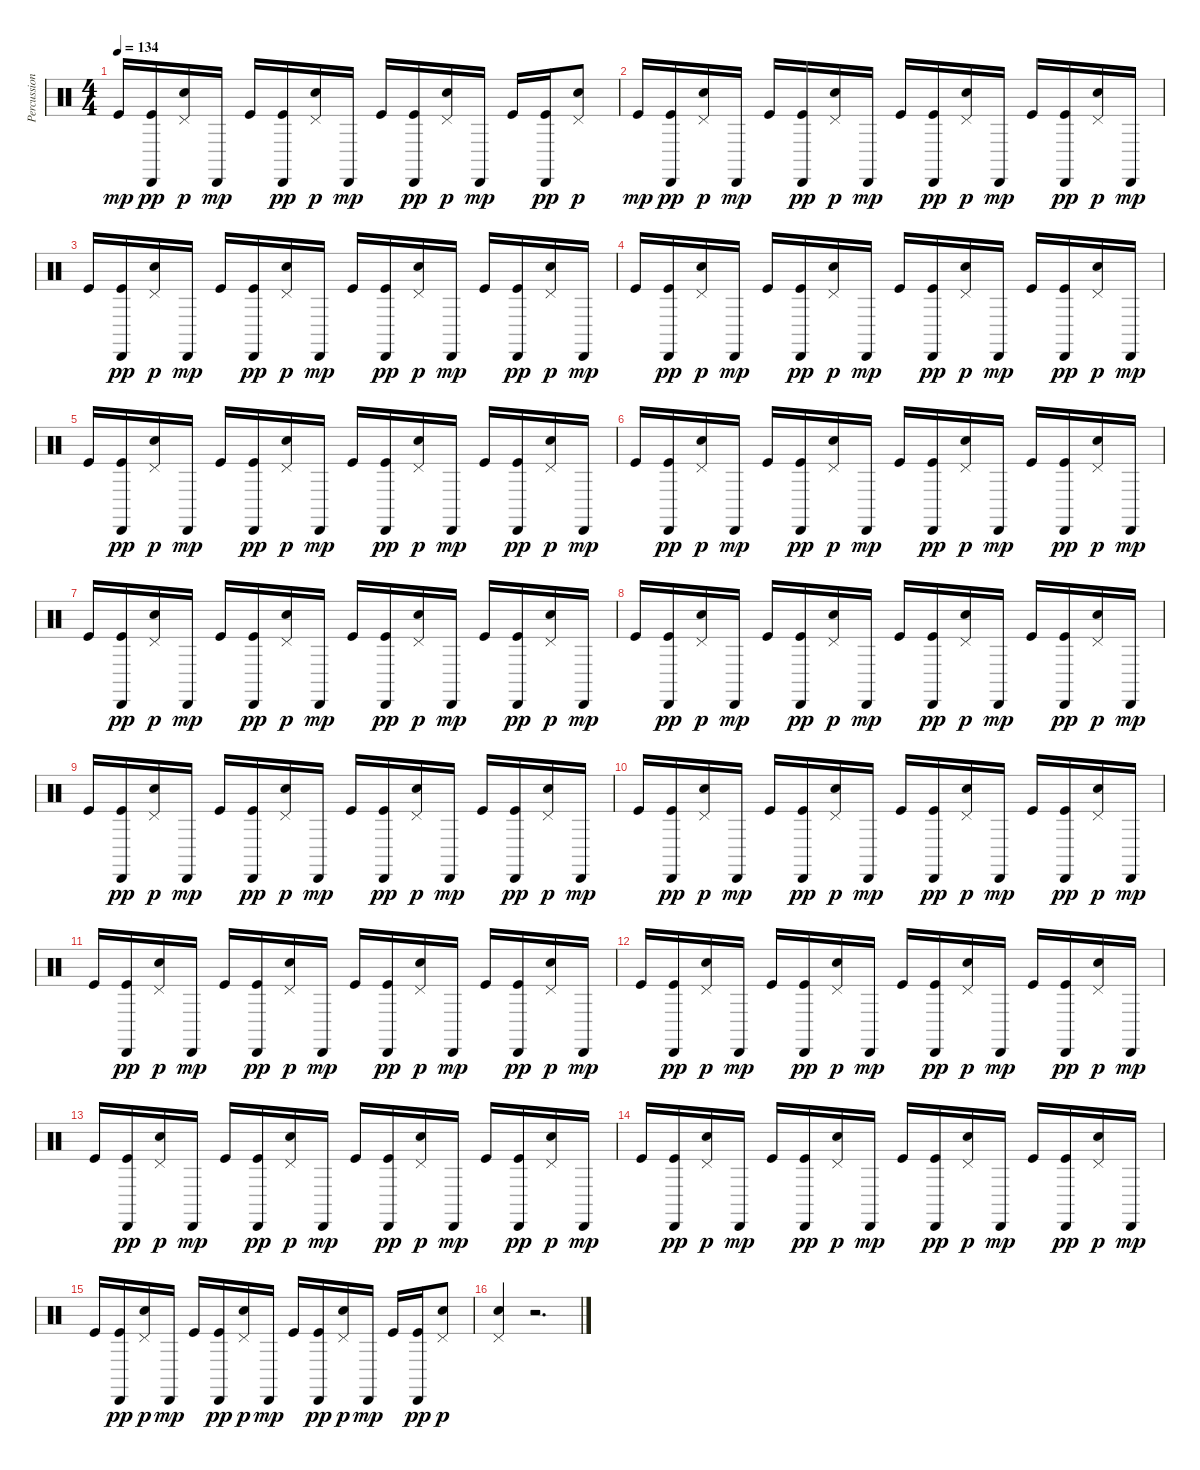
\track ("Percussions" "Percussion") {instrument percussion}
\staff {score}
\articulation defaults
\ts (4 4)
\tempo 134
\clef neutral
\ks c "Kick (hit)".16{dy mp}
("Cabasa (hit)" "Kick (hit)").16{dy pp} ("Electric Snare (hit)" "Pedal Hi-Hat (hit)").16{dy p} "Cabasa (hit)".16{dy mp} "Kick (hit)".16 ("Cabasa (hit)" "Kick (hit)").16{dy pp} ("Electric Snare (hit)" "Pedal Hi-Hat (hit)").16{dy p} "Cabasa (hit)".16{dy mp} "Kick (hit)".16 ("Cabasa (hit)" "Kick (hit)").16{dy pp} ("Electric Snare (hit)" "Pedal Hi-Hat (hit)").16{dy p} "Cabasa (hit)".16{dy mp} "Kick (hit)".16 ("Cabasa (hit)" "Kick (hit)").16{dy pp} ("Electric Snare (hit)" "Pedal Hi-Hat (hit)").8{dy p} |
"Kick (hit)".16{dy mp} ("Cabasa (hit)" "Kick (hit)").16{dy pp} ("Electric Snare (hit)" "Pedal Hi-Hat (hit)").16{dy p} "Cabasa (hit)".16{dy mp} "Kick (hit)".16 ("Cabasa (hit)" "Kick (hit)").16{dy pp} ("Electric Snare (hit)" "Pedal Hi-Hat (hit)").16{dy p} "Cabasa (hit)".16{dy mp} "Kick (hit)".16 ("Cabasa (hit)" "Kick (hit)").16{dy pp} ("Electric Snare (hit)" "Pedal Hi-Hat (hit)").16{dy p} "Cabasa (hit)".16{dy mp} "Kick (hit)".16 ("Cabasa (hit)" "Kick (hit)").16{dy pp} ("Electric Snare (hit)" "Pedal Hi-Hat (hit)").16{dy p} "Cabasa (hit)".16{dy mp} |
"Kick (hit)".16 ("Cabasa (hit)" "Kick (hit)").16{dy pp} ("Electric Snare (hit)" "Pedal Hi-Hat (hit)").16{dy p} "Cabasa (hit)".16{dy mp} "Kick (hit)".16 ("Cabasa (hit)" "Kick (hit)").16{dy pp} ("Electric Snare (hit)" "Pedal Hi-Hat (hit)").16{dy p} "Cabasa (hit)".16{dy mp} "Kick (hit)".16 ("Cabasa (hit)" "Kick (hit)").16{dy pp} ("Electric Snare (hit)" "Pedal Hi-Hat (hit)").16{dy p} "Cabasa (hit)".16{dy mp} "Kick (hit)".16 ("Cabasa (hit)" "Kick (hit)").16{dy pp} ("Electric Snare (hit)" "Pedal Hi-Hat (hit)").16{dy p} "Cabasa (hit)".16{dy mp} |
"Kick (hit)".16 ("Cabasa (hit)" "Kick (hit)").16{dy pp} ("Electric Snare (hit)" "Pedal Hi-Hat (hit)").16{dy p} "Cabasa (hit)".16{dy mp} "Kick (hit)".16 ("Cabasa (hit)" "Kick (hit)").16{dy pp} ("Electric Snare (hit)" "Pedal Hi-Hat (hit)").16{dy p} "Cabasa (hit)".16{dy mp} "Kick (hit)".16 ("Cabasa (hit)" "Kick (hit)").16{dy pp} ("Electric Snare (hit)" "Pedal Hi-Hat (hit)").16{dy p} "Cabasa (hit)".16{dy mp} "Kick (hit)".16 ("Cabasa (hit)" "Kick (hit)").16{dy pp} ("Electric Snare (hit)" "Pedal Hi-Hat (hit)").16{dy p} "Cabasa (hit)".16{dy mp} |
"Kick (hit)".16 ("Cabasa (hit)" "Kick (hit)").16{dy pp} ("Electric Snare (hit)" "Pedal Hi-Hat (hit)").16{dy p} "Cabasa (hit)".16{dy mp} "Kick (hit)".16 ("Cabasa (hit)" "Kick (hit)").16{dy pp} ("Electric Snare (hit)" "Pedal Hi-Hat (hit)").16{dy p} "Cabasa (hit)".16{dy mp} "Kick (hit)".16 ("Cabasa (hit)" "Kick (hit)").16{dy pp} ("Electric Snare (hit)" "Pedal Hi-Hat (hit)").16{dy p} "Cabasa (hit)".16{dy mp} "Kick (hit)".16 ("Cabasa (hit)" "Kick (hit)").16{dy pp} ("Electric Snare (hit)" "Pedal Hi-Hat (hit)").16{dy p} "Cabasa (hit)".16{dy mp} |
"Kick (hit)".16 ("Cabasa (hit)" "Kick (hit)").16{dy pp} ("Electric Snare (hit)" "Pedal Hi-Hat (hit)").16{dy p} "Cabasa (hit)".16{dy mp} "Kick (hit)".16 ("Cabasa (hit)" "Kick (hit)").16{dy pp} ("Electric Snare (hit)" "Pedal Hi-Hat (hit)").16{dy p} "Cabasa (hit)".16{dy mp} "Kick (hit)".16 ("Cabasa (hit)" "Kick (hit)").16{dy pp} ("Electric Snare (hit)" "Pedal Hi-Hat (hit)").16{dy p} "Cabasa (hit)".16{dy mp} "Kick (hit)".16 ("Cabasa (hit)" "Kick (hit)").16{dy pp} ("Electric Snare (hit)" "Pedal Hi-Hat (hit)").16{dy p} "Cabasa (hit)".16{dy mp} |
"Kick (hit)".16 ("Cabasa (hit)" "Kick (hit)").16{dy pp} ("Electric Snare (hit)" "Pedal Hi-Hat (hit)").16{dy p} "Cabasa (hit)".16{dy mp} "Kick (hit)".16 ("Cabasa (hit)" "Kick (hit)").16{dy pp} ("Electric Snare (hit)" "Pedal Hi-Hat (hit)").16{dy p} "Cabasa (hit)".16{dy mp} "Kick (hit)".16 ("Cabasa (hit)" "Kick (hit)").16{dy pp} ("Electric Snare (hit)" "Pedal Hi-Hat (hit)").16{dy p} "Cabasa (hit)".16{dy mp} "Kick (hit)".16 ("Cabasa (hit)" "Kick (hit)").16{dy pp} ("Electric Snare (hit)" "Pedal Hi-Hat (hit)").16{dy p} "Cabasa (hit)".16{dy mp} |
"Kick (hit)".16 ("Cabasa (hit)" "Kick (hit)").16{dy pp} ("Electric Snare (hit)" "Pedal Hi-Hat (hit)").16{dy p} "Cabasa (hit)".16{dy mp} "Kick (hit)".16 ("Cabasa (hit)" "Kick (hit)").16{dy pp} ("Electric Snare (hit)" "Pedal Hi-Hat (hit)").16{dy p} "Cabasa (hit)".16{dy mp} "Kick (hit)".16 ("Cabasa (hit)" "Kick (hit)").16{dy pp} ("Electric Snare (hit)" "Pedal Hi-Hat (hit)").16{dy p} "Cabasa (hit)".16{dy mp} "Kick (hit)".16 ("Cabasa (hit)" "Kick (hit)").16{dy pp} ("Electric Snare (hit)" "Pedal Hi-Hat (hit)").16{dy p} "Cabasa (hit)".16{dy mp} |
"Kick (hit)".16 ("Cabasa (hit)" "Kick (hit)").16{dy pp} ("Electric Snare (hit)" "Pedal Hi-Hat (hit)").16{dy p} "Cabasa (hit)".16{dy mp} "Kick (hit)".16 ("Cabasa (hit)" "Kick (hit)").16{dy pp} ("Electric Snare (hit)" "Pedal Hi-Hat (hit)").16{dy p} "Cabasa (hit)".16{dy mp} "Kick (hit)".16 ("Cabasa (hit)" "Kick (hit)").16{dy pp} ("Electric Snare (hit)" "Pedal Hi-Hat (hit)").16{dy p} "Cabasa (hit)".16{dy mp} "Kick (hit)".16 ("Cabasa (hit)" "Kick (hit)").16{dy pp} ("Electric Snare (hit)" "Pedal Hi-Hat (hit)").16{dy p} "Cabasa (hit)".16{dy mp} |
"Kick (hit)".16 ("Cabasa (hit)" "Kick (hit)").16{dy pp} ("Electric Snare (hit)" "Pedal Hi-Hat (hit)").16{dy p} "Cabasa (hit)".16{dy mp} "Kick (hit)".16 ("Cabasa (hit)" "Kick (hit)").16{dy pp} ("Electric Snare (hit)" "Pedal Hi-Hat (hit)").16{dy p} "Cabasa (hit)".16{dy mp} "Kick (hit)".16 ("Cabasa (hit)" "Kick (hit)").16{dy pp} ("Electric Snare (hit)" "Pedal Hi-Hat (hit)").16{dy p} "Cabasa (hit)".16{dy mp} "Kick (hit)".16 ("Cabasa (hit)" "Kick (hit)").16{dy pp} ("Electric Snare (hit)" "Pedal Hi-Hat (hit)").16{dy p} "Cabasa (hit)".16{dy mp} |
"Kick (hit)".16 ("Cabasa (hit)" "Kick (hit)").16{dy pp} ("Electric Snare (hit)" "Pedal Hi-Hat (hit)").16{dy p} "Cabasa (hit)".16{dy mp} "Kick (hit)".16 ("Cabasa (hit)" "Kick (hit)").16{dy pp} ("Electric Snare (hit)" "Pedal Hi-Hat (hit)").16{dy p} "Cabasa (hit)".16{dy mp} "Kick (hit)".16 ("Cabasa (hit)" "Kick (hit)").16{dy pp} ("Electric Snare (hit)" "Pedal Hi-Hat (hit)").16{dy p} "Cabasa (hit)".16{dy mp} "Kick (hit)".16 ("Cabasa (hit)" "Kick (hit)").16{dy pp} ("Electric Snare (hit)" "Pedal Hi-Hat (hit)").16{dy p} "Cabasa (hit)".16{dy mp} |
"Kick (hit)".16 ("Cabasa (hit)" "Kick (hit)").16{dy pp} ("Electric Snare (hit)" "Pedal Hi-Hat (hit)").16{dy p} "Cabasa (hit)".16{dy mp} "Kick (hit)".16 ("Cabasa (hit)" "Kick (hit)").16{dy pp} ("Electric Snare (hit)" "Pedal Hi-Hat (hit)").16{dy p} "Cabasa (hit)".16{dy mp} "Kick (hit)".16 ("Cabasa (hit)" "Kick (hit)").16{dy pp} ("Electric Snare (hit)" "Pedal Hi-Hat (hit)").16{dy p} "Cabasa (hit)".16{dy mp} "Kick (hit)".16 ("Cabasa (hit)" "Kick (hit)").16{dy pp} ("Electric Snare (hit)" "Pedal Hi-Hat (hit)").16{dy p} "Cabasa (hit)".16{dy mp} |
"Kick (hit)".16 ("Cabasa (hit)" "Kick (hit)").16{dy pp} ("Electric Snare (hit)" "Pedal Hi-Hat (hit)").16{dy p} "Cabasa (hit)".16{dy mp} "Kick (hit)".16 ("Cabasa (hit)" "Kick (hit)").16{dy pp} ("Electric Snare (hit)" "Pedal Hi-Hat (hit)").16{dy p} "Cabasa (hit)".16{dy mp} "Kick (hit)".16 ("Cabasa (hit)" "Kick (hit)").16{dy pp} ("Electric Snare (hit)" "Pedal Hi-Hat (hit)").16{dy p} "Cabasa (hit)".16{dy mp} "Kick (hit)".16 ("Cabasa (hit)" "Kick (hit)").16{dy pp} ("Electric Snare (hit)" "Pedal Hi-Hat (hit)").16{dy p} "Cabasa (hit)".16{dy mp} |
"Kick (hit)".16 ("Cabasa (hit)" "Kick (hit)").16{dy pp} ("Electric Snare (hit)" "Pedal Hi-Hat (hit)").16{dy p} "Cabasa (hit)".16{dy mp} "Kick (hit)".16 ("Cabasa (hit)" "Kick (hit)").16{dy pp} ("Electric Snare (hit)" "Pedal Hi-Hat (hit)").16{dy p} "Cabasa (hit)".16{dy mp} "Kick (hit)".16 ("Cabasa (hit)" "Kick (hit)").16{dy pp} ("Electric Snare (hit)" "Pedal Hi-Hat (hit)").16{dy p} "Cabasa (hit)".16{dy mp} "Kick (hit)".16 ("Cabasa (hit)" "Kick (hit)").16{dy pp} ("Electric Snare (hit)" "Pedal Hi-Hat (hit)").16{dy p} "Cabasa (hit)".16{dy mp} |
"Kick (hit)".16 ("Cabasa (hit)" "Kick (hit)").16{dy pp} ("Electric Snare (hit)" "Pedal Hi-Hat (hit)").16{dy p} "Cabasa (hit)".16{dy mp} "Kick (hit)".16 ("Cabasa (hit)" "Kick (hit)").16{dy pp} ("Electric Snare (hit)" "Pedal Hi-Hat (hit)").16{dy p} "Cabasa (hit)".16{dy mp} "Kick (hit)".16 ("Cabasa (hit)" "Kick (hit)").16{dy pp} ("Electric Snare (hit)" "Pedal Hi-Hat (hit)").16{dy p} "Cabasa (hit)".16{dy mp} "Kick (hit)".16 ("Cabasa (hit)" "Kick (hit)").16{dy pp} ("Electric Snare (hit)" "Pedal Hi-Hat (hit)").8{dy p} |
("Electric Snare (hit)" "Pedal Hi-Hat (hit)").4 r.2{d}
